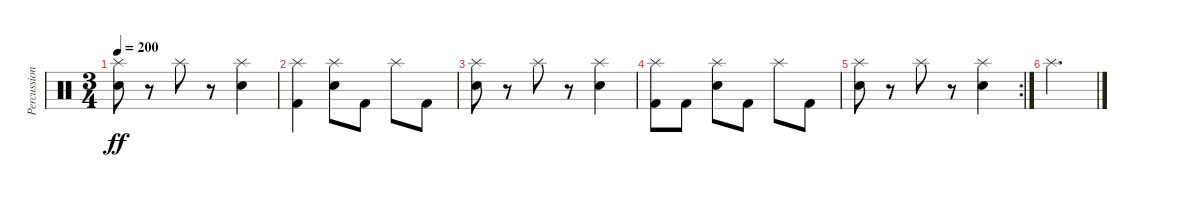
\track ("Percussion" "Percussion") {instrument percussion}
\staff {score}
\articulation defaults
\ts (3 4)
\tempo 200
\clef neutral
\ks c
("Splash (hit)" "Electric Snare (hit)").8{dy ff} r.8 "Splash (hit)".8 r.8 ("Splash (hit)" "Electric Snare (hit)").4 |
("Splash (hit)" "Kick (hit) 2").4 ("Splash (hit)" "Electric Snare (hit)").8 "Kick (hit) 2".8 "Splash (hit)".8 "Kick (hit) 2".8 |
("Splash (hit)" "Electric Snare (hit)").8 r.8 "Splash (hit)".8 r.8 ("Splash (hit)" "Electric Snare (hit)").4 |
("Splash (hit)" "Kick (hit) 2").8 "Kick (hit) 2".8 ("Splash (hit)" "Electric Snare (hit)").8 "Kick (hit) 2".8 "Splash (hit)".8 "Kick (hit) 2".8 |
\rc 2
("Splash (hit)" "Electric Snare (hit)").8 r.8 "Splash (hit)".8 r.8 ("Splash (hit)" "Electric Snare (hit)").4 |
"Splash (hit)".2{d}
